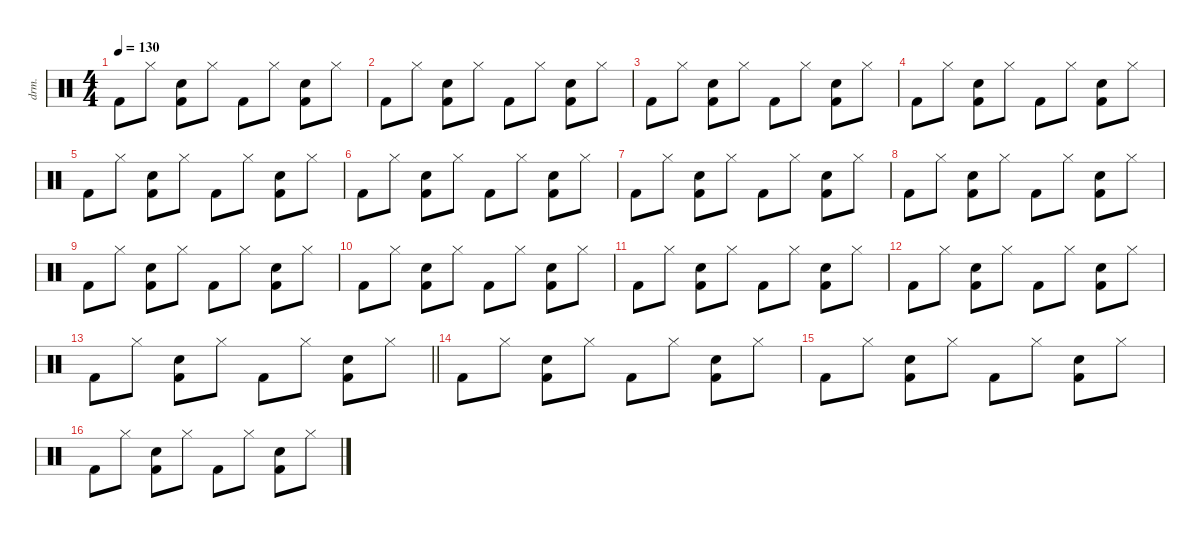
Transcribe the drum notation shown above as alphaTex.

\defaultSystemsLayout 4
\hideDynamics
\bracketExtendMode nobrackets
\otherSystemsTrackNameOrientation horizontal
\track ("Percussion" "drm.") {defaultSystemsLayout 4 instrument percussion}
\staff {score}
\articulation defaults
\ts (4 4)
\tempo 130
\clef neutral
\ks c "Kick (hit) 2".8{dy f beam Down} "Hi-Hat (closed)".8{beam Down}
("Snare (hit) 2" "Kick (hit) 2").8{beam Down} "Hi-Hat (closed)".8{beam Down} "Kick (hit) 2".8{beam Down} "Hi-Hat (closed)".8{beam Down} ("Snare (hit) 2" "Kick (hit) 2").8{beam Down} "Hi-Hat (closed)".8{beam Down} |
"Kick (hit) 2".8{beam Down} "Hi-Hat (closed)".8{beam Down} ("Snare (hit) 2" "Kick (hit) 2").8{beam Down} "Hi-Hat (closed)".8{beam Down} "Kick (hit) 2".8{beam Down} "Hi-Hat (closed)".8{beam Down} ("Snare (hit) 2" "Kick (hit) 2").8{beam Down} "Hi-Hat (closed)".8{beam Down} |
"Kick (hit) 2".8{beam Down} "Hi-Hat (closed)".8{beam Down} ("Snare (hit) 2" "Kick (hit) 2").8{beam Down} "Hi-Hat (closed)".8{beam Down} "Kick (hit) 2".8{beam Down} "Hi-Hat (closed)".8{beam Down} ("Snare (hit) 2" "Kick (hit) 2").8{beam Down} "Hi-Hat (closed)".8{beam Down} |
"Kick (hit) 2".8{beam Down} "Hi-Hat (closed)".8{beam Down} ("Snare (hit) 2" "Kick (hit) 2").8{beam Down} "Hi-Hat (closed)".8{beam Down} "Kick (hit) 2".8{beam Down} "Hi-Hat (closed)".8{beam Down} ("Snare (hit) 2" "Kick (hit) 2").8{beam Down} "Hi-Hat (closed)".8{beam Down} |
"Kick (hit) 2".8{beam Down} "Hi-Hat (closed)".8{beam Down} ("Snare (hit) 2" "Kick (hit) 2").8{beam Down} "Hi-Hat (closed)".8{beam Down} "Kick (hit) 2".8{beam Down} "Hi-Hat (closed)".8{beam Down} ("Snare (hit) 2" "Kick (hit) 2").8{beam Down} "Hi-Hat (closed)".8{beam Down} |
"Kick (hit) 2".8{beam Down} "Hi-Hat (closed)".8{beam Down} ("Snare (hit) 2" "Kick (hit) 2").8{beam Down} "Hi-Hat (closed)".8{beam Down} "Kick (hit) 2".8{beam Down} "Hi-Hat (closed)".8{beam Down} ("Snare (hit) 2" "Kick (hit) 2").8{beam Down} "Hi-Hat (closed)".8{beam Down} |
"Kick (hit) 2".8{beam Down} "Hi-Hat (closed)".8{beam Down} ("Snare (hit) 2" "Kick (hit) 2").8{beam Down} "Hi-Hat (closed)".8{beam Down} "Kick (hit) 2".8{beam Down} "Hi-Hat (closed)".8{beam Down} ("Snare (hit) 2" "Kick (hit) 2").8{beam Down} "Hi-Hat (closed)".8{beam Down} |
"Kick (hit) 2".8{beam Down} "Hi-Hat (closed)".8{beam Down} ("Snare (hit) 2" "Kick (hit) 2").8{beam Down} "Hi-Hat (closed)".8{beam Down} "Kick (hit) 2".8{beam Down} "Hi-Hat (closed)".8{beam Down} ("Snare (hit) 2" "Kick (hit) 2").8{beam Down} "Hi-Hat (closed)".8{beam Down} |
"Kick (hit) 2".8{beam Down} "Hi-Hat (closed)".8{beam Down} ("Snare (hit) 2" "Kick (hit) 2").8{beam Down} "Hi-Hat (closed)".8{beam Down} "Kick (hit) 2".8{beam Down} "Hi-Hat (closed)".8{beam Down} ("Snare (hit) 2" "Kick (hit) 2").8{beam Down} "Hi-Hat (closed)".8{beam Down} |
"Kick (hit) 2".8{beam Down} "Hi-Hat (closed)".8{beam Down} ("Snare (hit) 2" "Kick (hit) 2").8{beam Down} "Hi-Hat (closed)".8{beam Down} "Kick (hit) 2".8{beam Down} "Hi-Hat (closed)".8{beam Down} ("Snare (hit) 2" "Kick (hit) 2").8{beam Down} "Hi-Hat (closed)".8{beam Down} |
"Kick (hit) 2".8{beam Down} "Hi-Hat (closed)".8{beam Down} ("Snare (hit) 2" "Kick (hit) 2").8{beam Down} "Hi-Hat (closed)".8{beam Down} "Kick (hit) 2".8{beam Down} "Hi-Hat (closed)".8{beam Down} ("Snare (hit) 2" "Kick (hit) 2").8{beam Down} "Hi-Hat (closed)".8{beam Down} |
"Kick (hit) 2".8{beam Down} "Hi-Hat (closed)".8{beam Down} ("Snare (hit) 2" "Kick (hit) 2").8{beam Down} "Hi-Hat (closed)".8{beam Down} "Kick (hit) 2".8{beam Down} "Hi-Hat (closed)".8{beam Down} ("Snare (hit) 2" "Kick (hit) 2").8{beam Down} "Hi-Hat (closed)".8{beam Down} |
\barLineRight lightlight "Kick (hit) 2".8{beam Down} "Hi-Hat (closed)".8{beam Down}
("Snare (hit) 2" "Kick (hit) 2").8{beam Down} "Hi-Hat (closed)".8{beam Down} "Kick (hit) 2".8{beam Down} "Hi-Hat (closed)".8{beam Down} ("Snare (hit) 2" "Kick (hit) 2").8{beam Down} "Hi-Hat (closed)".8{beam Down} |
"Kick (hit) 2".8{beam Down} "Hi-Hat (closed)".8{beam Down} ("Snare (hit) 2" "Kick (hit) 2").8{beam Down} "Hi-Hat (closed)".8{beam Down} "Kick (hit) 2".8{beam Down} "Hi-Hat (closed)".8{beam Down} ("Snare (hit) 2" "Kick (hit) 2").8{beam Down} "Hi-Hat (closed)".8{beam Down} |
"Kick (hit) 2".8{beam Down} "Hi-Hat (closed)".8{beam Down} ("Snare (hit) 2" "Kick (hit) 2").8{beam Down} "Hi-Hat (closed)".8{beam Down} "Kick (hit) 2".8{beam Down} "Hi-Hat (closed)".8{beam Down} ("Snare (hit) 2" "Kick (hit) 2").8{beam Down} "Hi-Hat (closed)".8{beam Down} |
"Kick (hit) 2".8{beam Down} "Hi-Hat (closed)".8{beam Down} ("Snare (hit) 2" "Kick (hit) 2").8{beam Down} "Hi-Hat (closed)".8{beam Down} "Kick (hit) 2".8{beam Down} "Hi-Hat (closed)".8{beam Down} ("Snare (hit) 2" "Kick (hit) 2").8{beam Down} "Hi-Hat (closed)".8{beam Down}
